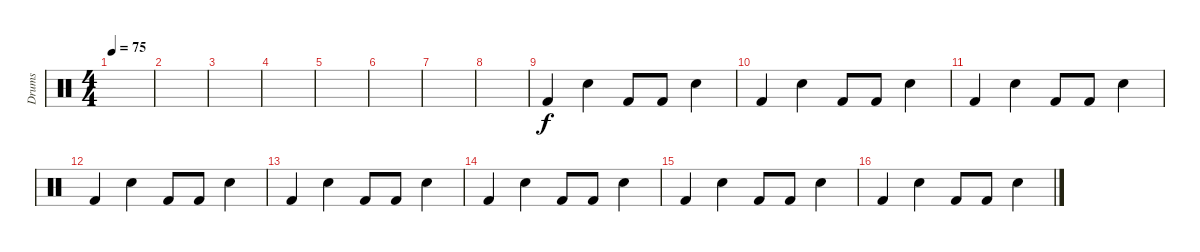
\track ("Drums" "Drums") {instrument percussion}
\staff {score}
\articulation defaults
\ts (4 4)
\tempo 75
\clef neutral
\ks c
|
|
|
|
|
|
|
|
"Kick (hit) 2".4 "Snare (hit) 2".4 "Kick (hit) 2".8 "Kick (hit) 2".8 "Snare (hit) 2".4 |
"Kick (hit) 2".4 "Snare (hit) 2".4 "Kick (hit) 2".8 "Kick (hit) 2".8 "Snare (hit) 2".4 |
"Kick (hit) 2".4 "Snare (hit) 2".4 "Kick (hit) 2".8 "Kick (hit) 2".8 "Snare (hit) 2".4 |
"Kick (hit) 2".4 "Snare (hit) 2".4 "Kick (hit) 2".8 "Kick (hit) 2".8 "Snare (hit) 2".4 |
"Kick (hit) 2".4 "Snare (hit) 2".4 "Kick (hit) 2".8 "Kick (hit) 2".8 "Snare (hit) 2".4 |
"Kick (hit) 2".4 "Snare (hit) 2".4 "Kick (hit) 2".8 "Kick (hit) 2".8 "Snare (hit) 2".4 |
"Kick (hit) 2".4 "Snare (hit) 2".4 "Kick (hit) 2".8 "Kick (hit) 2".8 "Snare (hit) 2".4 |
"Kick (hit) 2".4 "Snare (hit) 2".4 "Kick (hit) 2".8 "Kick (hit) 2".8 "Snare (hit) 2".4
